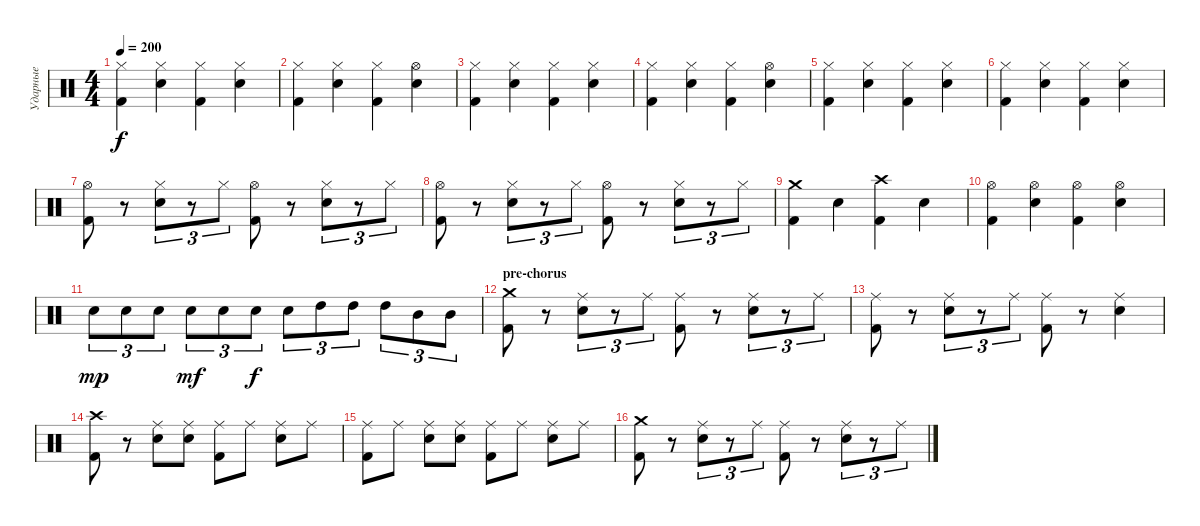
\track ("Ударные" "Ударные") {instrument percussion}
\staff {score}
\articulation defaults
\ts (4 4)
\tempo 200
\clef neutral
\ks c
("Hi-Hat (closed)" "Kick (hit) 2").4{dy f} ("Hi-Hat (closed)" "Electric Snare (hit)").4 ("Hi-Hat (closed)" "Kick (hit) 2").4 ("Hi-Hat (closed)" "Electric Snare (hit)").4 |
("Hi-Hat (closed)" "Kick (hit) 2").4 ("Hi-Hat (closed)" "Electric Snare (hit)").4 ("Hi-Hat (closed)" "Kick (hit) 2").4 ("Hi-Hat (open)" "Electric Snare (hit)").4 |
("Hi-Hat (closed)" "Kick (hit) 2").4 ("Hi-Hat (closed)" "Electric Snare (hit)").4 ("Hi-Hat (closed)" "Kick (hit) 2").4 ("Hi-Hat (closed)" "Electric Snare (hit)").4 |
("Hi-Hat (closed)" "Kick (hit) 2").4 ("Hi-Hat (closed)" "Electric Snare (hit)").4 ("Hi-Hat (closed)" "Kick (hit) 2").4 ("Hi-Hat (open)" "Electric Snare (hit)").4 |
("Hi-Hat (closed)" "Kick (hit) 2").4 ("Hi-Hat (closed)" "Electric Snare (hit)").4 ("Hi-Hat (closed)" "Kick (hit) 2").4 ("Hi-Hat (closed)" "Electric Snare (hit)").4 |
("Hi-Hat (closed)" "Kick (hit) 2").4 ("Hi-Hat (closed)" "Electric Snare (hit)").4 ("Hi-Hat (closed)" "Kick (hit) 2").4 ("Hi-Hat (closed)" "Electric Snare (hit)").4 |
("Hi-Hat (open)" "Kick (hit) 2").8 r.8 ("Hi-Hat (closed)" "Electric Snare (hit)").8{tu (3 2)} r.8{tu (3 2)} "Hi-Hat (closed)".8{tu (3 2)} ("Hi-Hat (open)" "Kick (hit) 2").8 r.8 ("Hi-Hat (closed)" "Electric Snare (hit)").8{tu (3 2)} r.8{tu (3 2)} "Hi-Hat (closed)".8{tu (3 2)} |
("Hi-Hat (open)" "Kick (hit) 2").8 r.8 ("Hi-Hat (closed)" "Electric Snare (hit)").8{tu (3 2)} r.8{tu (3 2)} "Hi-Hat (closed)".8{tu (3 2)} ("Hi-Hat (open)" "Kick (hit) 2").8 r.8 ("Hi-Hat (closed)" "Electric Snare (hit)").8{tu (3 2)} r.8{tu (3 2)} "Hi-Hat (closed)".8{tu (3 2)} |
("Crash medium (hit)" "Kick (hit) 2").4 "Electric Snare (hit)".4 ("Crash high (hit)" "Kick (hit) 2").4 "Electric Snare (hit)".4 |
("Hi-Hat (open)" "Kick (hit) 2").4 ("Hi-Hat (open)" "Electric Snare (hit)").4 ("Hi-Hat (open)" "Kick (hit) 2").4 ("Hi-Hat (open)" "Electric Snare (hit)").4 |
"Electric Snare (hit)".8{tu (3 2) dy mp} "Electric Snare (hit)".8{tu (3 2)} "Electric Snare (hit)".8{tu (3 2)} "Electric Snare (hit)".8{tu (3 2) dy mf} "Electric Snare (hit)".8{tu (3 2)} "Electric Snare (hit)".8{tu (3 2) dy f} "Electric Snare (hit)".8{tu (3 2)} "High Tom (hit)".8{tu (3 2)} "High Tom (hit)".8{tu (3 2)} "High Tom (hit)".8{tu (3 2)} "Mid Tom (hit)".8{tu (3 2)} "Mid Tom (hit)".8{tu (3 2)} |
\section ("" "pre-chorus")
("Crash medium (hit)" "Kick (hit) 2").8 r.8 ("Ride (middle)" "Electric Snare (hit)").8{tu (3 2)} r.8{tu (3 2)} "Ride (middle)".8{tu (3 2)} ("Ride (middle)" "Kick (hit) 2").8 r.8 ("Ride (middle)" "Electric Snare (hit)").8{tu (3 2)} r.8{tu (3 2)} "Ride (middle)".8{tu (3 2)} |
("Ride (middle)" "Kick (hit) 2").8 r.8 ("Ride (middle)" "Electric Snare (hit)").8{tu (3 2)} r.8{tu (3 2)} "Ride (middle)".8{tu (3 2)} ("Ride (middle)" "Kick (hit) 2").8 r.8 ("Ride (middle)" "Electric Snare (hit)").4 |
("Crash high (hit)" "Kick (hit) 2").8 r.8 ("Ride (middle)" "Electric Snare (hit)").8 ("Ride (middle)" "Electric Snare (hit)").8 ("Ride (middle)" "Kick (hit) 2").8 "Ride (middle)".8 ("Ride (middle)" "Electric Snare (hit)").8 "Ride (middle)".8 |
("Ride (middle)" "Kick (hit) 2").8 "Ride (middle)".8 ("Ride (middle)" "Electric Snare (hit)").8 ("Ride (middle)" "Electric Snare (hit)").8 ("Ride (middle)" "Kick (hit) 2").8 "Ride (middle)".8 ("Ride (middle)" "Electric Snare (hit)").8 "Ride (middle)".8 |
("Crash medium (hit)" "Kick (hit) 2").8 r.8 ("Ride (middle)" "Electric Snare (hit)").8{tu (3 2)} r.8{tu (3 2)} "Ride (middle)".8{tu (3 2)} ("Ride (middle)" "Kick (hit) 2").8 r.8 ("Ride (middle)" "Electric Snare (hit)").8{tu (3 2)} r.8{tu (3 2)} "Ride (middle)".8{tu (3 2)}
